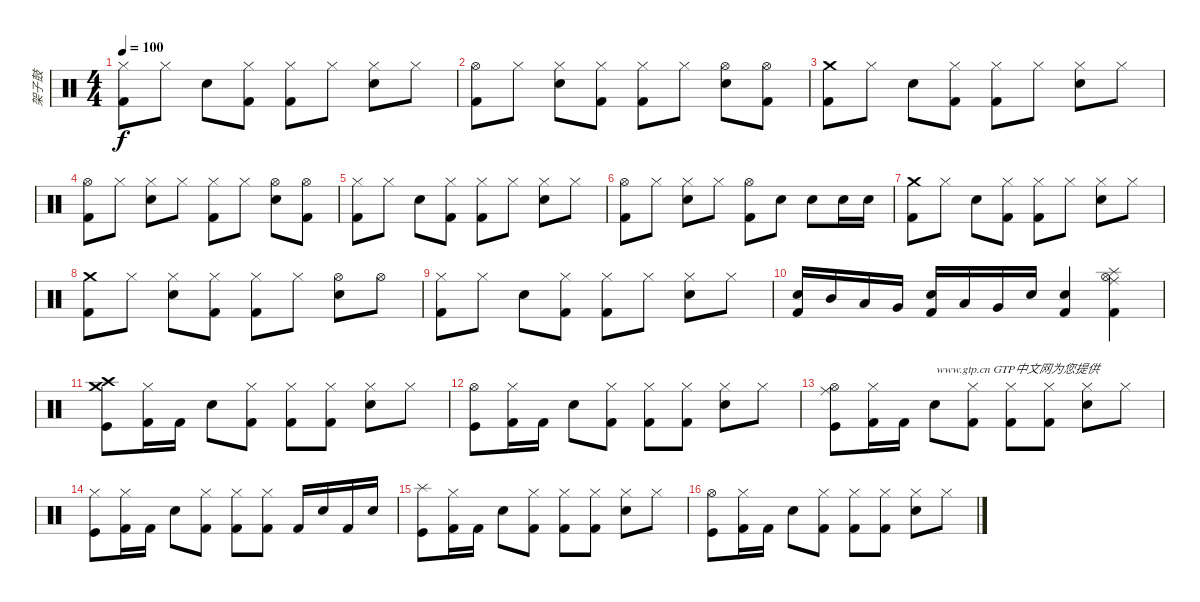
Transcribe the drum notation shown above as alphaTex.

\track ("架子鼓" "架子鼓") {instrument percussion}
\staff {score}
\articulation defaults
\ts (4 4)
\tempo 100
\clef neutral
\ks c
("Hi-Hat (closed)" "Kick (hit) 2").8{dy f} "Hi-Hat (closed)".8 "Electric Snare (hit)".8 ("Hi-Hat (closed)" "Kick (hit) 2").8 ("Hi-Hat (closed)" "Kick (hit) 2").8 "Hi-Hat (closed)".8 ("Hi-Hat (closed)" "Electric Snare (hit)").8 "Hi-Hat (closed)".8 |
("Hi-Hat (open)" "Kick (hit) 2").8 "Hi-Hat (closed)".8 ("Hi-Hat (closed)" "Electric Snare (hit)").8 ("Hi-Hat (closed)" "Kick (hit) 2").8 ("Hi-Hat (closed)" "Kick (hit) 2").8 "Hi-Hat (closed)".8 ("Hi-Hat (open)" "Electric Snare (hit)").8 ("Hi-Hat (open)" "Kick (hit) 2").8 |
("Crash medium (hit)" "Kick (hit) 2").8 "Hi-Hat (closed)".8 "Electric Snare (hit)".8 ("Hi-Hat (closed)" "Kick (hit) 2").8 ("Hi-Hat (closed)" "Kick (hit) 2").8 "Hi-Hat (closed)".8 ("Hi-Hat (closed)" "Electric Snare (hit)").8 "Hi-Hat (closed)".8 |
("Hi-Hat (open)" "Kick (hit) 2").8 "Hi-Hat (closed)".8 ("Hi-Hat (closed)" "Electric Snare (hit)").8 "Hi-Hat (closed)".8 ("Hi-Hat (closed)" "Kick (hit) 2").8 "Hi-Hat (closed)".8 ("Hi-Hat (open)" "Electric Snare (hit)").8 ("Hi-Hat (open)" "Kick (hit) 2").8 |
("Hi-Hat (closed)" "Kick (hit) 2").8 "Hi-Hat (closed)".8 "Electric Snare (hit)".8 ("Hi-Hat (closed)" "Kick (hit) 2").8 ("Hi-Hat (closed)" "Kick (hit) 2").8 "Hi-Hat (closed)".8 ("Hi-Hat (closed)" "Electric Snare (hit)").8 "Hi-Hat (closed)".8 |
("Hi-Hat (open)" "Kick (hit) 2").8 "Hi-Hat (closed)".8 ("Hi-Hat (closed)" "Electric Snare (hit)").8 "Hi-Hat (closed)".8 ("Hi-Hat (open)" "Kick (hit) 2").8 "Electric Snare (hit)".8 "Electric Snare (hit)".8 "Electric Snare (hit)".16 "Electric Snare (hit)".16 |
("Crash medium (hit)" "Kick (hit) 2").8 "Hi-Hat (closed)".8 "Electric Snare (hit)".8 ("Hi-Hat (closed)" "Kick (hit) 2").8 ("Hi-Hat (closed)" "Kick (hit) 2").8 "Hi-Hat (closed)".8 ("Hi-Hat (closed)" "Electric Snare (hit)").8 "Hi-Hat (closed)".8 |
("Crash medium (hit)" "Kick (hit) 2").8 "Hi-Hat (closed)".8 ("Hi-Hat (closed)" "Electric Snare (hit)").8 ("Hi-Hat (closed)" "Kick (hit) 2").8 ("Hi-Hat (closed)" "Kick (hit) 2").8 "Hi-Hat (closed)".8 ("Hi-Hat (open)" "Electric Snare (hit)").8 "Hi-Hat (open)".8 |
("Hi-Hat (closed)" "Kick (hit) 2").8 "Hi-Hat (closed)".8 "Electric Snare (hit)".8 ("Hi-Hat (closed)" "Kick (hit) 2").8 ("Hi-Hat (closed)" "Kick (hit) 2").8 "Hi-Hat (closed)".8 ("Hi-Hat (closed)" "Electric Snare (hit)").8 "Hi-Hat (closed)".8 |
("Electric Snare (hit)" "Kick (hit) 2").16 "Mid Tom (hit)".16 "Low Tom (hit)".16 "Very Low Tom (hit)".16 ("Electric Snare (hit)" "Kick (hit) 2").16 "Low Tom (hit)".16 "Very Low Tom (hit)".16 "Electric Snare (hit)".16 ("Electric Snare (hit)" "Kick (hit) 2").4 ("Splash (hit)" "Ride (middle)" "Hi-Hat (open)" "Kick (hit) 2").4 |
("Crash medium (hit)" "Crash high (hit)" "Kick (hit)").8 ("Hi-Hat (closed)" "Kick (hit) 2").16 "Kick (hit) 2".16 "Electric Snare (hit)".8 ("Hi-Hat (closed)" "Kick (hit) 2").8 ("Hi-Hat (closed)" "Kick (hit) 2").8 ("Hi-Hat (closed)" "Kick (hit) 2").8 ("Hi-Hat (closed)" "Electric Snare (hit)").8 "Hi-Hat (closed)".8 |
("Hi-Hat (open)" "Kick (hit)").8 ("Hi-Hat (closed)" "Kick (hit) 2").16 "Kick (hit) 2".16 "Electric Snare (hit)".8 ("Hi-Hat (closed)" "Kick (hit) 2").8 ("Hi-Hat (closed)" "Kick (hit) 2").8 ("Hi-Hat (closed)" "Kick (hit) 2").8 ("Hi-Hat (closed)" "Electric Snare (hit)").8 "Hi-Hat (closed)".8 |
("Ride (middle)" "Hi-Hat (open)" "Kick (hit)").8 ("Hi-Hat (closed)" "Kick (hit) 2").16{txt "                     www.gtp.cn GTP中文网为您提供"} "Kick (hit) 2".16 "Electric Snare (hit)".8 ("Hi-Hat (closed)" "Kick (hit) 2").8 ("Hi-Hat (closed)" "Kick (hit) 2").8 ("Hi-Hat (closed)" "Kick (hit) 2").8 ("Hi-Hat (closed)" "Electric Snare (hit)").8 "Hi-Hat (closed)".8 |
("Hi-Hat (closed)" "Kick (hit)").8 ("Hi-Hat (closed)" "Kick (hit) 2").16 "Kick (hit) 2".16 "Electric Snare (hit)".8 ("Hi-Hat (closed)" "Kick (hit) 2").8 ("Hi-Hat (closed)" "Kick (hit) 2").8 ("Hi-Hat (closed)" "Kick (hit) 2").8 "Kick (hit) 2".16 "Electric Snare (hit)".16 "Kick (hit) 2".16 "Electric Snare (hit)".16 |
("Splash (hit)" "Kick (hit)").8 ("Hi-Hat (closed)" "Kick (hit) 2").16 "Kick (hit) 2".16 "Electric Snare (hit)".8 ("Hi-Hat (closed)" "Kick (hit) 2").8 ("Hi-Hat (closed)" "Kick (hit) 2").8 ("Hi-Hat (closed)" "Kick (hit) 2").8 ("Hi-Hat (closed)" "Electric Snare (hit)").8 "Hi-Hat (closed)".8 |
("Hi-Hat (open)" "Kick (hit)").8 ("Hi-Hat (closed)" "Kick (hit) 2").16 "Kick (hit) 2".16 "Electric Snare (hit)".8 ("Hi-Hat (closed)" "Kick (hit) 2").8 ("Hi-Hat (closed)" "Kick (hit) 2").8 ("Hi-Hat (closed)" "Kick (hit) 2").8 ("Hi-Hat (closed)" "Electric Snare (hit)").8 "Hi-Hat (closed)".8
